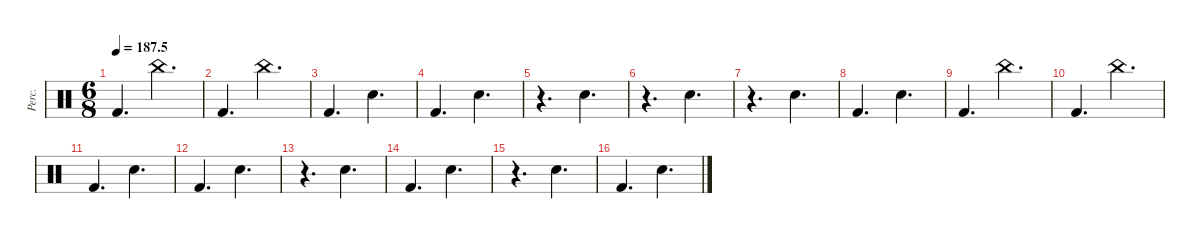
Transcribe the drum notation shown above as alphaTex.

\defaultSystemsLayout 4
\hideDynamics
\bracketExtendMode groupsimilarinstruments
\otherSystemsTrackNameOrientation horizontal
\track ("Percussions" "Perc.") {instrument percussion}
\staff {score}
\articulation defaults
\ts (6 8)
\tempo
187.5
\accidentals auto
\clef neutral
\ottava regular
\simile none
\ks c "Kick (hit) 2".4{d dy mf beam Up} "China (hit)".4{d beam Down}
|
"Kick (hit) 2".4{d beam Up} "China (hit)".4{d beam Down} |
"Kick (hit) 2".4{d beam Up} "Snare (hit) 2".4{d beam Down} |
"Kick (hit) 2".4{d beam Up} "Snare (hit) 2".4{d beam Down} |
r.4{d beam Down} "Snare (hit) 2".4{d beam Down} |
r.4{d beam Down} "Snare (hit) 2".4{d beam Down} |
r.4{d beam Down} "Snare (hit) 2".4{d beam Down} |
"Kick (hit) 2".4{d beam Up} "Snare (hit) 2".4{d beam Down} |
"Kick (hit) 2".4{d beam Up} "China (hit)".4{d beam Down} |
"Kick (hit) 2".4{d beam Up} "China (hit)".4{d beam Down} |
"Kick (hit) 2".4{d beam Up} "Snare (hit) 2".4{d beam Down} |
"Kick (hit) 2".4{d beam Up} "Snare (hit) 2".4{d beam Down} |
r.4{d beam Down} "Snare (hit) 2".4{d beam Down} |
"Kick (hit) 2".4{d beam Up} "Snare (hit) 2".4{d beam Down} |
r.4{d beam Down} "Snare (hit) 2".4{d beam Down} |
"Kick (hit) 2".4{d beam Up} "Snare (hit) 2".4{d beam Down}
